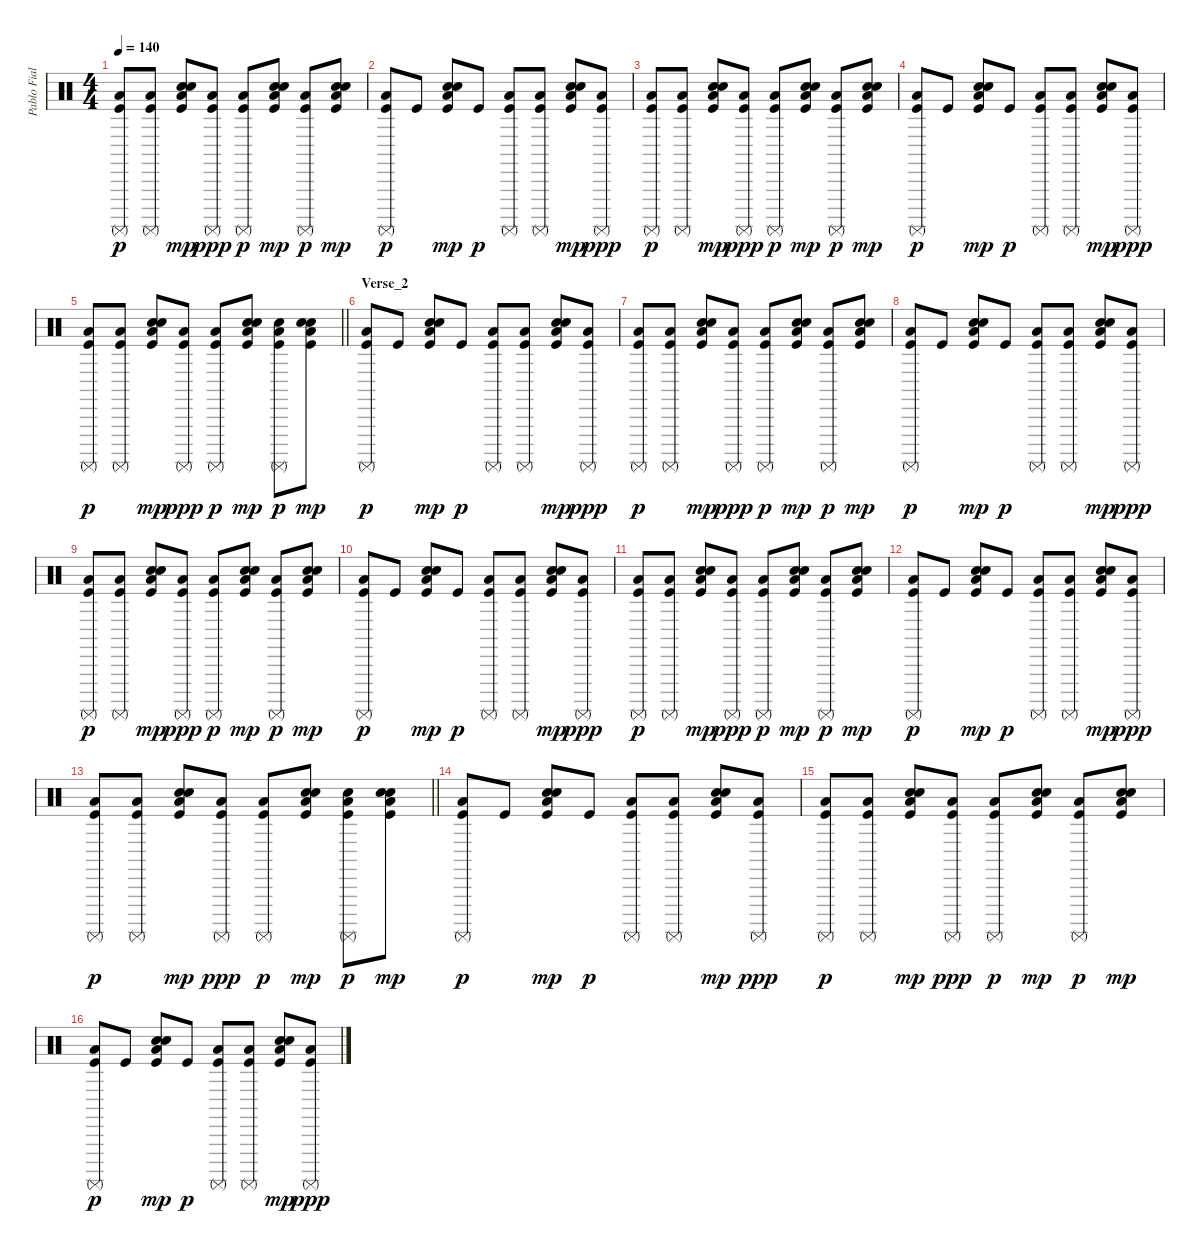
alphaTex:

\track ("Pablo Fiallo" "Pablo Fial") {instrument percussion}
\staff {score}
\articulation defaults
\ts (4 4)
\tempo 140
\clef neutral
\ks c
("Low Floor Tom (hit)" "Kick (hit)" "Surdo (mute)").8{dy p} ("Low Floor Tom (hit)" "Kick (hit)" "Surdo (mute)").8 ("Low Floor Tom (hit)" "Electric Snare (hit)" "Kick (hit)" "Snare (hit) 2").8{dy mp} ("Low Floor Tom (hit)" "Kick (hit)" "Surdo (mute)").8{dy ppp} ("Low Floor Tom (hit)" "Kick (hit)" "Surdo (mute)").8{dy p} ("Low Floor Tom (hit)" "Electric Snare (hit)" "Kick (hit)" "Snare (hit) 2").8{dy mp} ("Low Floor Tom (hit)" "Kick (hit)" "Surdo (mute)").8{dy p} ("Low Floor Tom (hit)" "Electric Snare (hit)" "Kick (hit)" "Snare (hit) 2").8{dy mp} |
("Low Floor Tom (hit)" "Kick (hit)" "Surdo (mute)").8{dy p} "Kick (hit)".8 ("Low Floor Tom (hit)" "Electric Snare (hit)" "Kick (hit)" "Snare (hit) 2").8{dy mp} "Kick (hit)".8{dy p} ("Low Floor Tom (hit)" "Kick (hit)" "Surdo (mute)").8 ("Low Floor Tom (hit)" "Kick (hit)" "Surdo (mute)").8 ("Low Floor Tom (hit)" "Electric Snare (hit)" "Kick (hit)" "Snare (hit) 2").8{dy mp} ("Low Floor Tom (hit)" "Kick (hit)" "Surdo (mute)").8{dy ppp} |
("Low Floor Tom (hit)" "Kick (hit)" "Surdo (mute)").8{dy p} ("Low Floor Tom (hit)" "Kick (hit)" "Surdo (mute)").8 ("Low Floor Tom (hit)" "Electric Snare (hit)" "Kick (hit)" "Snare (hit) 2").8{dy mp} ("Low Floor Tom (hit)" "Kick (hit)" "Surdo (mute)").8{dy ppp} ("Low Floor Tom (hit)" "Kick (hit)" "Surdo (mute)").8{dy p} ("Low Floor Tom (hit)" "Electric Snare (hit)" "Kick (hit)" "Snare (hit) 2").8{dy mp} ("Low Floor Tom (hit)" "Kick (hit)" "Surdo (mute)").8{dy p} ("Low Floor Tom (hit)" "Electric Snare (hit)" "Kick (hit)" "Snare (hit) 2").8{dy mp} |
("Low Floor Tom (hit)" "Kick (hit)" "Surdo (mute)").8{dy p} "Kick (hit)".8 ("Low Floor Tom (hit)" "Electric Snare (hit)" "Kick (hit)" "Snare (hit) 2").8{dy mp} "Kick (hit)".8{dy p} ("Low Floor Tom (hit)" "Kick (hit)" "Surdo (mute)").8 ("Low Floor Tom (hit)" "Kick (hit)" "Surdo (mute)").8 ("Low Floor Tom (hit)" "Electric Snare (hit)" "Kick (hit)" "Snare (hit) 2").8{dy mp} ("Low Floor Tom (hit)" "Kick (hit)" "Surdo (mute)").8{dy ppp} |
\barLineRight lightlight
("Low Floor Tom (hit)" "Kick (hit)" "Surdo (mute)").8{dy p} ("Low Floor Tom (hit)" "Kick (hit)" "Surdo (mute)").8 ("Low Floor Tom (hit)" "Electric Snare (hit)" "Kick (hit)" "Snare (hit) 2").8{dy mp} ("Low Floor Tom (hit)" "Kick (hit)" "Surdo (mute)").8{dy ppp} ("Low Floor Tom (hit)" "Kick (hit)" "Surdo (mute)").8{dy p} ("Low Floor Tom (hit)" "Electric Snare (hit)" "Kick (hit)" "Snare (hit) 2").8{dy mp} ("Low Floor Tom (hit)" "Electric Snare (hit)" "Kick (hit)" "Surdo (mute)").8{dy p} ("Low Floor Tom (hit)" "Electric Snare (hit)" "Kick (hit)" "Snare (hit) 2").8{dy mp} |
\section ("" "Verse_2")
("Low Floor Tom (hit)" "Kick (hit)" "Surdo (mute)").8{dy p} "Kick (hit)".8 ("Low Floor Tom (hit)" "Electric Snare (hit)" "Kick (hit)" "Snare (hit) 2").8{dy mp} "Kick (hit)".8{dy p} ("Low Floor Tom (hit)" "Kick (hit)" "Surdo (mute)").8 ("Low Floor Tom (hit)" "Kick (hit)" "Surdo (mute)").8 ("Low Floor Tom (hit)" "Electric Snare (hit)" "Kick (hit)" "Snare (hit) 2").8{dy mp} ("Low Floor Tom (hit)" "Kick (hit)" "Surdo (mute)").8{dy ppp} |
("Low Floor Tom (hit)" "Kick (hit)" "Surdo (mute)").8{dy p} ("Low Floor Tom (hit)" "Kick (hit)" "Surdo (mute)").8 ("Low Floor Tom (hit)" "Electric Snare (hit)" "Kick (hit)" "Snare (hit) 2").8{dy mp} ("Low Floor Tom (hit)" "Kick (hit)" "Surdo (mute)").8{dy ppp} ("Low Floor Tom (hit)" "Kick (hit)" "Surdo (mute)").8{dy p} ("Low Floor Tom (hit)" "Electric Snare (hit)" "Kick (hit)" "Snare (hit) 2").8{dy mp} ("Low Floor Tom (hit)" "Kick (hit)" "Surdo (mute)").8{dy p} ("Low Floor Tom (hit)" "Electric Snare (hit)" "Kick (hit)" "Snare (hit) 2").8{dy mp} |
("Low Floor Tom (hit)" "Kick (hit)" "Surdo (mute)").8{dy p} "Kick (hit)".8 ("Low Floor Tom (hit)" "Electric Snare (hit)" "Kick (hit)" "Snare (hit) 2").8{dy mp} "Kick (hit)".8{dy p} ("Low Floor Tom (hit)" "Kick (hit)" "Surdo (mute)").8 ("Low Floor Tom (hit)" "Kick (hit)" "Surdo (mute)").8 ("Low Floor Tom (hit)" "Electric Snare (hit)" "Kick (hit)" "Snare (hit) 2").8{dy mp} ("Low Floor Tom (hit)" "Kick (hit)" "Surdo (mute)").8{dy ppp} |
("Low Floor Tom (hit)" "Kick (hit)" "Surdo (mute)").8{dy p} ("Low Floor Tom (hit)" "Kick (hit)" "Surdo (mute)").8 ("Low Floor Tom (hit)" "Electric Snare (hit)" "Kick (hit)" "Snare (hit) 2").8{dy mp} ("Low Floor Tom (hit)" "Kick (hit)" "Surdo (mute)").8{dy ppp} ("Low Floor Tom (hit)" "Kick (hit)" "Surdo (mute)").8{dy p} ("Low Floor Tom (hit)" "Electric Snare (hit)" "Kick (hit)" "Snare (hit) 2").8{dy mp} ("Low Floor Tom (hit)" "Kick (hit)" "Surdo (mute)").8{dy p} ("Low Floor Tom (hit)" "Electric Snare (hit)" "Kick (hit)" "Snare (hit) 2").8{dy mp} |
("Low Floor Tom (hit)" "Kick (hit)" "Surdo (mute)").8{dy p} "Kick (hit)".8 ("Low Floor Tom (hit)" "Electric Snare (hit)" "Kick (hit)" "Snare (hit) 2").8{dy mp} "Kick (hit)".8{dy p} ("Low Floor Tom (hit)" "Kick (hit)" "Surdo (mute)").8 ("Low Floor Tom (hit)" "Kick (hit)" "Surdo (mute)").8 ("Low Floor Tom (hit)" "Electric Snare (hit)" "Kick (hit)" "Snare (hit) 2").8{dy mp} ("Low Floor Tom (hit)" "Kick (hit)" "Surdo (mute)").8{dy ppp} |
("Low Floor Tom (hit)" "Kick (hit)" "Surdo (mute)").8{dy p} ("Low Floor Tom (hit)" "Kick (hit)" "Surdo (mute)").8 ("Low Floor Tom (hit)" "Electric Snare (hit)" "Kick (hit)" "Snare (hit) 2").8{dy mp} ("Low Floor Tom (hit)" "Kick (hit)" "Surdo (mute)").8{dy ppp} ("Low Floor Tom (hit)" "Kick (hit)" "Surdo (mute)").8{dy p} ("Low Floor Tom (hit)" "Electric Snare (hit)" "Kick (hit)" "Snare (hit) 2").8{dy mp} ("Low Floor Tom (hit)" "Kick (hit)" "Surdo (mute)").8{dy p} ("Low Floor Tom (hit)" "Electric Snare (hit)" "Kick (hit)" "Snare (hit) 2").8{dy mp} |
("Low Floor Tom (hit)" "Kick (hit)" "Surdo (mute)").8{dy p} "Kick (hit)".8 ("Low Floor Tom (hit)" "Electric Snare (hit)" "Kick (hit)" "Snare (hit) 2").8{dy mp} "Kick (hit)".8{dy p} ("Low Floor Tom (hit)" "Kick (hit)" "Surdo (mute)").8 ("Low Floor Tom (hit)" "Kick (hit)" "Surdo (mute)").8 ("Low Floor Tom (hit)" "Electric Snare (hit)" "Kick (hit)" "Snare (hit) 2").8{dy mp} ("Low Floor Tom (hit)" "Kick (hit)" "Surdo (mute)").8{dy ppp} |
\barLineRight lightlight
("Low Floor Tom (hit)" "Kick (hit)" "Surdo (mute)").8{dy p} ("Low Floor Tom (hit)" "Kick (hit)" "Surdo (mute)").8 ("Low Floor Tom (hit)" "Electric Snare (hit)" "Kick (hit)" "Snare (hit) 2").8{dy mp} ("Low Floor Tom (hit)" "Kick (hit)" "Surdo (mute)").8{dy ppp} ("Low Floor Tom (hit)" "Kick (hit)" "Surdo (mute)").8{dy p} ("Low Floor Tom (hit)" "Electric Snare (hit)" "Kick (hit)" "Snare (hit) 2").8{dy mp} ("Low Floor Tom (hit)" "Electric Snare (hit)" "Kick (hit)" "Surdo (mute)").8{dy p} ("Low Floor Tom (hit)" "Electric Snare (hit)" "Kick (hit)" "Snare (hit) 2").8{dy mp} |
("Low Floor Tom (hit)" "Kick (hit)" "Surdo (mute)").8{dy p} "Kick (hit)".8 ("Low Floor Tom (hit)" "Electric Snare (hit)" "Kick (hit)" "Snare (hit) 2").8{dy mp} "Kick (hit)".8{dy p} ("Low Floor Tom (hit)" "Kick (hit)" "Surdo (mute)").8 ("Low Floor Tom (hit)" "Kick (hit)" "Surdo (mute)").8 ("Low Floor Tom (hit)" "Electric Snare (hit)" "Kick (hit)" "Snare (hit) 2").8{dy mp} ("Low Floor Tom (hit)" "Kick (hit)" "Surdo (mute)").8{dy ppp} |
("Low Floor Tom (hit)" "Kick (hit)" "Surdo (mute)").8{dy p} ("Low Floor Tom (hit)" "Kick (hit)" "Surdo (mute)").8 ("Low Floor Tom (hit)" "Electric Snare (hit)" "Kick (hit)" "Snare (hit) 2").8{dy mp} ("Low Floor Tom (hit)" "Kick (hit)" "Surdo (mute)").8{dy ppp} ("Low Floor Tom (hit)" "Kick (hit)" "Surdo (mute)").8{dy p} ("Low Floor Tom (hit)" "Electric Snare (hit)" "Kick (hit)" "Snare (hit) 2").8{dy mp} ("Low Floor Tom (hit)" "Kick (hit)" "Surdo (mute)").8{dy p} ("Low Floor Tom (hit)" "Electric Snare (hit)" "Kick (hit)" "Snare (hit) 2").8{dy mp} |
("Low Floor Tom (hit)" "Kick (hit)" "Surdo (mute)").8{dy p} "Kick (hit)".8 ("Low Floor Tom (hit)" "Electric Snare (hit)" "Kick (hit)" "Snare (hit) 2").8{dy mp} "Kick (hit)".8{dy p} ("Low Floor Tom (hit)" "Kick (hit)" "Surdo (mute)").8 ("Low Floor Tom (hit)" "Kick (hit)" "Surdo (mute)").8 ("Low Floor Tom (hit)" "Electric Snare (hit)" "Kick (hit)" "Snare (hit) 2").8{dy mp} ("Low Floor Tom (hit)" "Kick (hit)" "Surdo (mute)").8{dy ppp}
